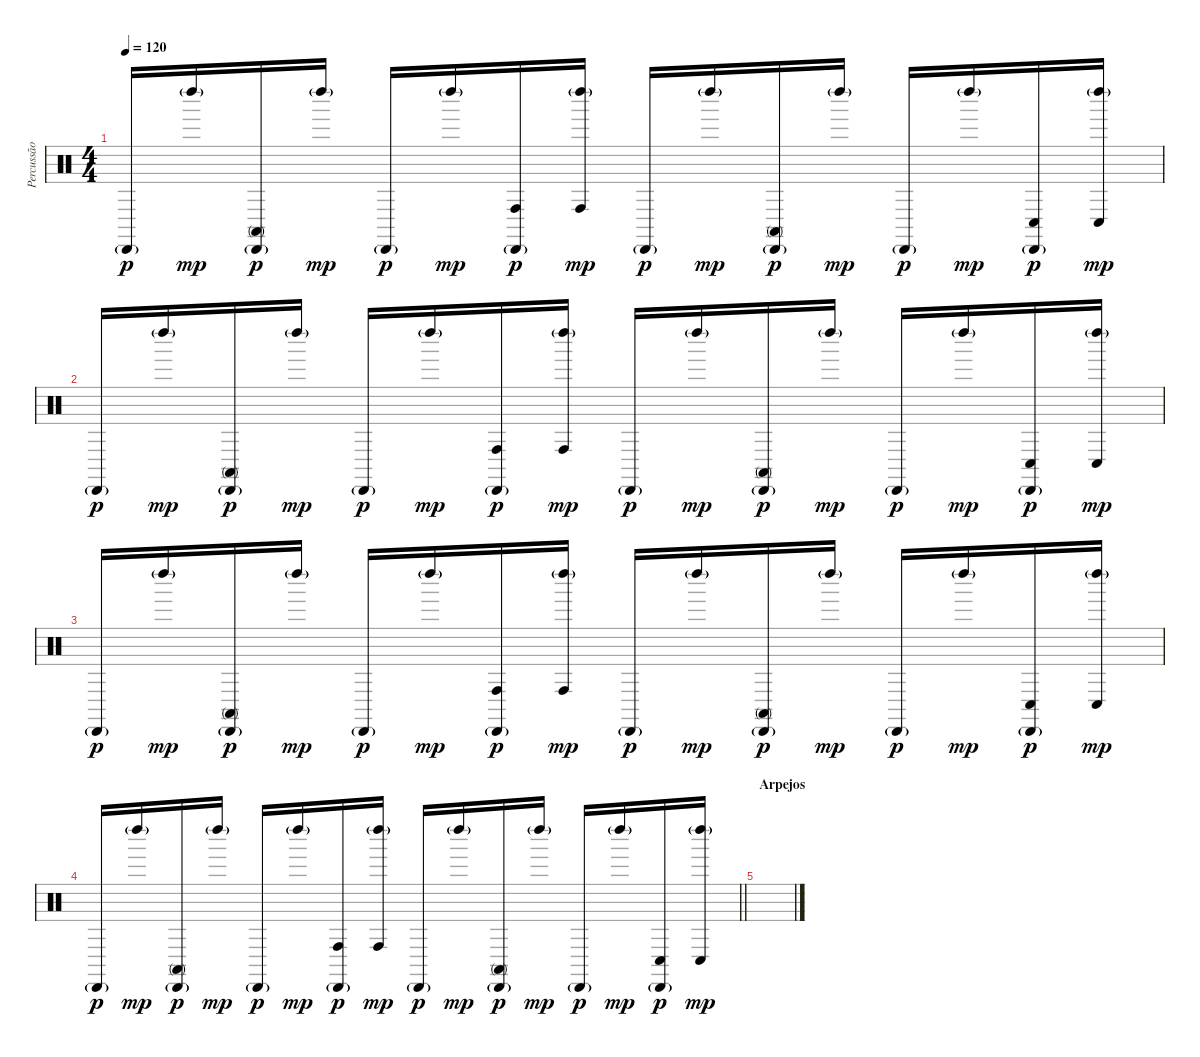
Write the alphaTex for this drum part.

\track ("Percussão Ad." "Percussão ") {instrument percussion}
\staff {score}
\articulation defaults
\ts (4 4)
\tempo 120
\clef neutral
\ks c "Cabasa (hit)"{g}.16{dy p} "Left Maraca (hit)"{g}.16{dy mp}
("Conga high (mute)" "Cabasa (hit)"{g}).16{dy p} "Left Maraca (hit)"{g}.16{dy mp} "Cabasa (hit)"{g}.16{dy p} "Left Maraca (hit)"{g}.16{dy mp} ("Conga high (hit)" "Cabasa (hit)"{g}).16{dy p} ("Conga high (hit)" "Left Maraca (hit)"{g}).16{dy mp} "Cabasa (hit)"{g}.16{dy p} "Left Maraca (hit)"{g}.16{dy mp} ("Conga high (mute)" "Cabasa (hit)"{g}).16{dy p} "Left Maraca (hit)"{g}.16{dy mp} "Cabasa (hit)"{g}.16{dy p} "Left Maraca (hit)"{g}.16{dy mp} ("Conga low (hit)" "Cabasa (hit)"{g}).16{dy p} ("Conga low (hit)" "Left Maraca (hit)"{g}).16{dy mp} |
"Cabasa (hit)"{g}.16{dy p} "Left Maraca (hit)"{g}.16{dy mp} ("Conga high (mute)" "Cabasa (hit)"{g}).16{dy p} "Left Maraca (hit)"{g}.16{dy mp} "Cabasa (hit)"{g}.16{dy p} "Left Maraca (hit)"{g}.16{dy mp} ("Conga high (hit)" "Cabasa (hit)"{g}).16{dy p} ("Conga high (hit)" "Left Maraca (hit)"{g}).16{dy mp} "Cabasa (hit)"{g}.16{dy p} "Left Maraca (hit)"{g}.16{dy mp} ("Conga high (mute)" "Cabasa (hit)"{g}).16{dy p} "Left Maraca (hit)"{g}.16{dy mp} "Cabasa (hit)"{g}.16{dy p} "Left Maraca (hit)"{g}.16{dy mp} ("Conga low (hit)" "Cabasa (hit)"{g}).16{dy p} ("Conga low (hit)" "Left Maraca (hit)"{g}).16{dy mp} |
"Cabasa (hit)"{g}.16{dy p} "Left Maraca (hit)"{g}.16{dy mp} ("Conga high (mute)" "Cabasa (hit)"{g}).16{dy p} "Left Maraca (hit)"{g}.16{dy mp} "Cabasa (hit)"{g}.16{dy p} "Left Maraca (hit)"{g}.16{dy mp} ("Conga high (hit)" "Cabasa (hit)"{g}).16{dy p} ("Conga high (hit)" "Left Maraca (hit)"{g}).16{dy mp} "Cabasa (hit)"{g}.16{dy p} "Left Maraca (hit)"{g}.16{dy mp} ("Conga high (mute)" "Cabasa (hit)"{g}).16{dy p} "Left Maraca (hit)"{g}.16{dy mp} "Cabasa (hit)"{g}.16{dy p} "Left Maraca (hit)"{g}.16{dy mp} ("Conga low (hit)" "Cabasa (hit)"{g}).16{dy p} ("Conga low (hit)" "Left Maraca (hit)"{g}).16{dy mp} |
\barLineRight lightlight "Cabasa (hit)"{g}.16{dy p} "Left Maraca (hit)"{g}.16{dy mp}
("Conga high (mute)" "Cabasa (hit)"{g}).16{dy p} "Left Maraca (hit)"{g}.16{dy mp} "Cabasa (hit)"{g}.16{dy p} "Left Maraca (hit)"{g}.16{dy mp} ("Conga high (hit)" "Cabasa (hit)"{g}).16{dy p} ("Conga high (hit)" "Left Maraca (hit)"{g}).16{dy mp} "Cabasa (hit)"{g}.16{dy p} "Left Maraca (hit)"{g}.16{dy mp} ("Conga high (mute)" "Cabasa (hit)"{g}).16{dy p} "Left Maraca (hit)"{g}.16{dy mp} "Cabasa (hit)"{g}.16{dy p} "Left Maraca (hit)"{g}.16{dy mp} ("Conga low (hit)" "Cabasa (hit)"{g}).16{dy p} ("Conga low (hit)" "Left Maraca (hit)"{g}).16{dy mp} |
\section ("" "Arpejos")
